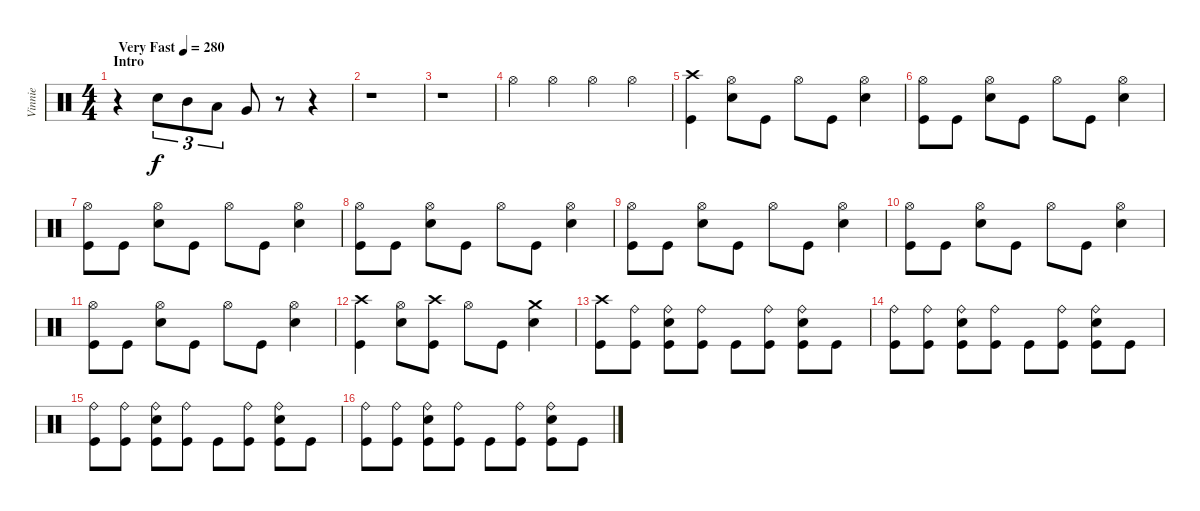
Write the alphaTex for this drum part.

\track ("Vinnie" "Vinnie") {instrument percussion}
\staff {score}
\articulation defaults
\ts (4 4)
\section ("" "Intro")
\tempo (280 "Very Fast")
\clef neutral
\ks c
r.4{dy f} "Electric Snare (hit)".8{tu (3 2)} "Mid Tom (hit)".8{tu (3 2)} "Low Tom (hit)".8{tu (3 2)} "Very Low Tom (hit)".8 r.8 r.4 |
r.1 |
r.1 |
"Hi-Hat (open)".4 "Hi-Hat (open)".4 "Hi-Hat (open)".4 "Hi-Hat (open)".4 |
("Crash high (hit)" "Kick (hit)").4 ("Hi-Hat (open)" "Electric Snare (hit)").8 "Kick (hit)".8 "Hi-Hat (open)".8 "Kick (hit)".8 ("Hi-Hat (open)" "Electric Snare (hit)").4 |
("Hi-Hat (open)" "Kick (hit)").8 "Kick (hit)".8 ("Hi-Hat (open)" "Electric Snare (hit)").8 "Kick (hit)".8 "Hi-Hat (open)".8 "Kick (hit)".8 ("Hi-Hat (open)" "Electric Snare (hit)").4 |
("Hi-Hat (open)" "Kick (hit)").8 "Kick (hit)".8 ("Hi-Hat (open)" "Electric Snare (hit)").8 "Kick (hit)".8 "Hi-Hat (open)".8 "Kick (hit)".8 ("Hi-Hat (open)" "Electric Snare (hit)").4 |
("Hi-Hat (open)" "Kick (hit)").8 "Kick (hit)".8 ("Hi-Hat (open)" "Electric Snare (hit)").8 "Kick (hit)".8 "Hi-Hat (open)".8 "Kick (hit)".8 ("Hi-Hat (open)" "Electric Snare (hit)").4 |
("Hi-Hat (open)" "Kick (hit)").8 "Kick (hit)".8 ("Hi-Hat (open)" "Electric Snare (hit)").8 "Kick (hit)".8 "Hi-Hat (open)".8 "Kick (hit)".8 ("Hi-Hat (open)" "Electric Snare (hit)").4 |
("Hi-Hat (open)" "Kick (hit)").8 "Kick (hit)".8 ("Hi-Hat (open)" "Electric Snare (hit)").8 "Kick (hit)".8 "Hi-Hat (open)".8 "Kick (hit)".8 ("Hi-Hat (open)" "Electric Snare (hit)").4 |
("Hi-Hat (open)" "Kick (hit)").8 "Kick (hit)".8 ("Hi-Hat (open)" "Electric Snare (hit)").8 "Kick (hit)".8 "Hi-Hat (open)".8 "Kick (hit)".8 ("Hi-Hat (open)" "Electric Snare (hit)").4 |
("Crash high (hit)" "Kick (hit)").4 ("Hi-Hat (open)" "Electric Snare (hit)").8 ("Crash high (hit)" "Kick (hit)").8 "Hi-Hat (open)".8 "Kick (hit)".8 ("Crash medium (hit)" "Electric Snare (hit)").4 |
("Crash high (hit)" "Kick (hit)").8 ("Ride (bell)" "Kick (hit)").8 ("Ride (bell)" "Electric Snare (hit)" "Kick (hit)").8 ("Ride (bell)" "Kick (hit)").8 "Kick (hit)".8 ("Ride (bell)" "Kick (hit)").8 ("Ride (bell)" "Electric Snare (hit)" "Kick (hit)").8 "Kick (hit)".8 |
("Ride (bell)" "Kick (hit)").8 ("Ride (bell)" "Kick (hit)").8 ("Ride (bell)" "Electric Snare (hit)" "Kick (hit)").8 ("Ride (bell)" "Kick (hit)").8 "Kick (hit)".8 ("Ride (bell)" "Kick (hit)").8 ("Ride (bell)" "Electric Snare (hit)" "Kick (hit)").8 "Kick (hit)".8 |
("Ride (bell)" "Kick (hit)").8 ("Ride (bell)" "Kick (hit)").8 ("Ride (bell)" "Electric Snare (hit)" "Kick (hit)").8 ("Ride (bell)" "Kick (hit)").8 "Kick (hit)".8 ("Ride (bell)" "Kick (hit)").8 ("Ride (bell)" "Electric Snare (hit)" "Kick (hit)").8 "Kick (hit)".8 |
("Ride (bell)" "Kick (hit)").8 ("Ride (bell)" "Kick (hit)").8 ("Ride (bell)" "Electric Snare (hit)" "Kick (hit)").8 ("Ride (bell)" "Kick (hit)").8 "Kick (hit)".8 ("Ride (bell)" "Kick (hit)").8 ("Ride (bell)" "Electric Snare (hit)" "Kick (hit)").8 "Kick (hit)".8
